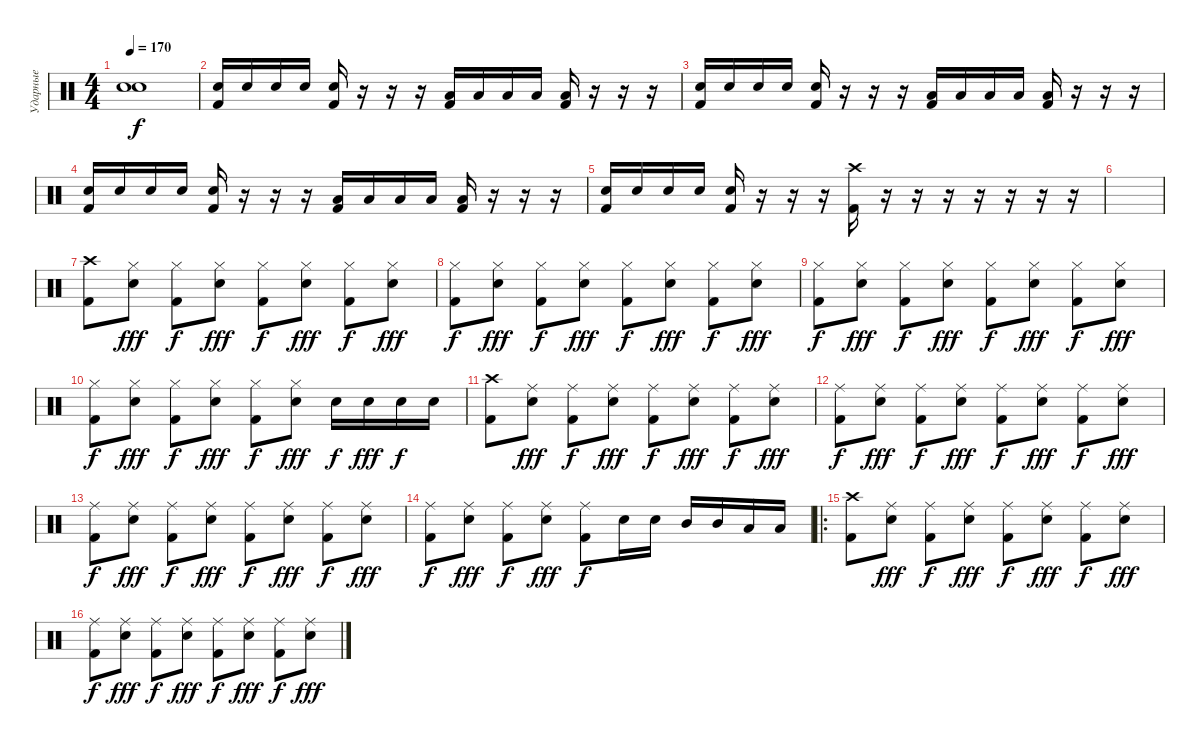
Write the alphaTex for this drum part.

\track ("Ударные" "Ударные") {instrument percussion}
\staff {score}
\articulation defaults
\ts (4 4)
\tempo 170
\clef neutral
\ks c
("Snare (hit)"{t} "Snare (hit)"{t}).1{dy f} |
("Snare (hit) 2" "Kick (hit) 2").16 "Snare (hit) 2".16 "Snare (hit) 2".16 "Snare (hit) 2".16 ("Snare (hit) 2" "Kick (hit) 2").16 r.16 r.16 r.16 ("Low Tom (hit)" "Kick (hit) 2").16 "Low Tom (hit)".16 "Low Tom (hit)".16 "Low Tom (hit)".16 ("Low Tom (hit)" "Kick (hit) 2").16 r.16 r.16 r.16 |
("Snare (hit) 2" "Kick (hit) 2").16 "Snare (hit) 2".16 "Snare (hit) 2".16 "Snare (hit) 2".16 ("Snare (hit) 2" "Kick (hit) 2").16 r.16 r.16 r.16 ("Low Tom (hit)" "Kick (hit) 2").16 "Low Tom (hit)".16 "Low Tom (hit)".16 "Low Tom (hit)".16 ("Low Tom (hit)" "Kick (hit) 2").16 r.16 r.16 r.16 |
("Snare (hit) 2" "Kick (hit) 2").16 "Snare (hit) 2".16 "Snare (hit) 2".16 "Snare (hit) 2".16 ("Snare (hit) 2" "Kick (hit) 2").16 r.16 r.16 r.16 ("Low Tom (hit)" "Kick (hit) 2").16 "Low Tom (hit)".16 "Low Tom (hit)".16 "Low Tom (hit)".16 ("Low Tom (hit)" "Kick (hit) 2").16 r.16 r.16 r.16 |
("Snare (hit) 2" "Kick (hit) 2").16 "Snare (hit) 2".16 "Snare (hit) 2".16 "Snare (hit) 2".16 ("Snare (hit) 2" "Kick (hit) 2").16 r.16 r.16 r.16 ("Crash high (hit)" "Kick (hit) 2").16 r.16 r.16 r.16 r.16 r.16 r.16 r.16 |
|
("Kick (hit) 2" "Crash high (hit)").8 ("Snare (hit) 2" "Hi-Hat (closed)").8{dy fff} ("Kick (hit) 2" "Hi-Hat (closed)").8{dy f} ("Snare (hit) 2" "Hi-Hat (closed)").8{dy fff} ("Kick (hit) 2" "Hi-Hat (closed)").8{dy f} ("Snare (hit) 2" "Hi-Hat (closed)").8{dy fff} ("Kick (hit) 2" "Hi-Hat (closed)").8{dy f} ("Snare (hit) 2" "Hi-Hat (closed)").8{dy fff} |
("Kick (hit) 2" "Hi-Hat (closed)").8{dy f} ("Snare (hit) 2" "Hi-Hat (closed)").8{dy fff} ("Kick (hit) 2" "Hi-Hat (closed)").8{dy f} ("Snare (hit) 2" "Hi-Hat (closed)").8{dy fff} ("Kick (hit) 2" "Hi-Hat (closed)").8{dy f} ("Snare (hit) 2" "Hi-Hat (closed)").8{dy fff} ("Kick (hit) 2" "Hi-Hat (closed)").8{dy f} ("Snare (hit) 2" "Hi-Hat (closed)").8{dy fff} |
("Kick (hit) 2" "Hi-Hat (closed)").8{dy f} ("Snare (hit) 2" "Hi-Hat (closed)").8{dy fff} ("Kick (hit) 2" "Hi-Hat (closed)").8{dy f} ("Snare (hit) 2" "Hi-Hat (closed)").8{dy fff} ("Kick (hit) 2" "Hi-Hat (closed)").8{dy f} ("Snare (hit) 2" "Hi-Hat (closed)").8{dy fff} ("Kick (hit) 2" "Hi-Hat (closed)").8{dy f} ("Snare (hit) 2" "Hi-Hat (closed)").8{dy fff} |
("Kick (hit) 2" "Hi-Hat (closed)").8{dy f} ("Snare (hit) 2" "Hi-Hat (closed)").8{dy fff} ("Kick (hit) 2" "Hi-Hat (closed)").8{dy f} ("Snare (hit) 2" "Hi-Hat (closed)").8{dy fff} ("Kick (hit) 2" "Hi-Hat (closed)").8{dy f} ("Snare (hit) 2" "Hi-Hat (closed)").8{dy fff} "Snare (hit) 2".16{dy f} "Snare (hit) 2".16{dy fff} "Snare (hit) 2".16{dy f} "Snare (hit) 2".16 |
("Kick (hit) 2" "Crash high (hit)").8 ("Snare (hit) 2" "Ride (middle)").8{dy fff} ("Kick (hit) 2" "Ride (middle)").8{dy f} ("Snare (hit) 2" "Ride (middle)").8{dy fff} ("Kick (hit) 2" "Ride (middle)").8{dy f} ("Snare (hit) 2" "Ride (middle)").8{dy fff} ("Kick (hit) 2" "Ride (middle)").8{dy f} ("Snare (hit) 2" "Ride (middle)").8{dy fff} |
("Kick (hit) 2" "Ride (middle)").8{dy f} ("Snare (hit) 2" "Ride (middle)").8{dy fff} ("Kick (hit) 2" "Ride (middle)").8{dy f} ("Snare (hit) 2" "Ride (middle)").8{dy fff} ("Kick (hit) 2" "Ride (middle)").8{dy f} ("Snare (hit) 2" "Ride (middle)").8{dy fff} ("Kick (hit) 2" "Ride (middle)").8{dy f} ("Snare (hit) 2" "Ride (middle)").8{dy fff} |
("Kick (hit) 2" "Ride (middle)").8{dy f} ("Snare (hit) 2" "Ride (middle)").8{dy fff} ("Kick (hit) 2" "Ride (middle)").8{dy f} ("Snare (hit) 2" "Ride (middle)").8{dy fff} ("Kick (hit) 2" "Ride (middle)").8{dy f} ("Snare (hit) 2" "Ride (middle)").8{dy fff} ("Kick (hit) 2" "Ride (middle)").8{dy f} ("Snare (hit) 2" "Ride (middle)").8{dy fff} |
("Kick (hit) 2" "Ride (middle)").8{dy f} ("Snare (hit) 2" "Ride (middle)").8{dy fff} ("Kick (hit) 2" "Ride (middle)").8{dy f} ("Snare (hit) 2" "Ride (middle)").8{dy fff} ("Kick (hit) 2" "Ride (middle)").8{dy f} "Snare (hit) 2".16 "Snare (hit) 2".16 "Mid Tom (hit)".16 "Mid Tom (hit)".16 "Low Tom (hit)".16 "Low Tom (hit)".16 |
\ro
("Kick (hit) 2" "Crash high (hit)").8 ("Snare (hit) 2" "Ride (middle)").8{dy fff} ("Kick (hit) 2" "Ride (middle)").8{dy f} ("Snare (hit) 2" "Ride (middle)").8{dy fff} ("Kick (hit) 2" "Ride (middle)").8{dy f} ("Snare (hit) 2" "Ride (middle)").8{dy fff} ("Kick (hit) 2" "Ride (middle)").8{dy f} ("Snare (hit) 2" "Ride (middle)").8{dy fff} |
("Kick (hit) 2" "Ride (middle)").8{dy f} ("Snare (hit) 2" "Ride (middle)").8{dy fff} ("Kick (hit) 2" "Ride (middle)").8{dy f} ("Snare (hit) 2" "Ride (middle)").8{dy fff} ("Kick (hit) 2" "Ride (middle)").8{dy f} ("Snare (hit) 2" "Ride (middle)").8{dy fff} ("Kick (hit) 2" "Ride (middle)").8{dy f} ("Snare (hit) 2" "Ride (middle)").8{dy fff}
